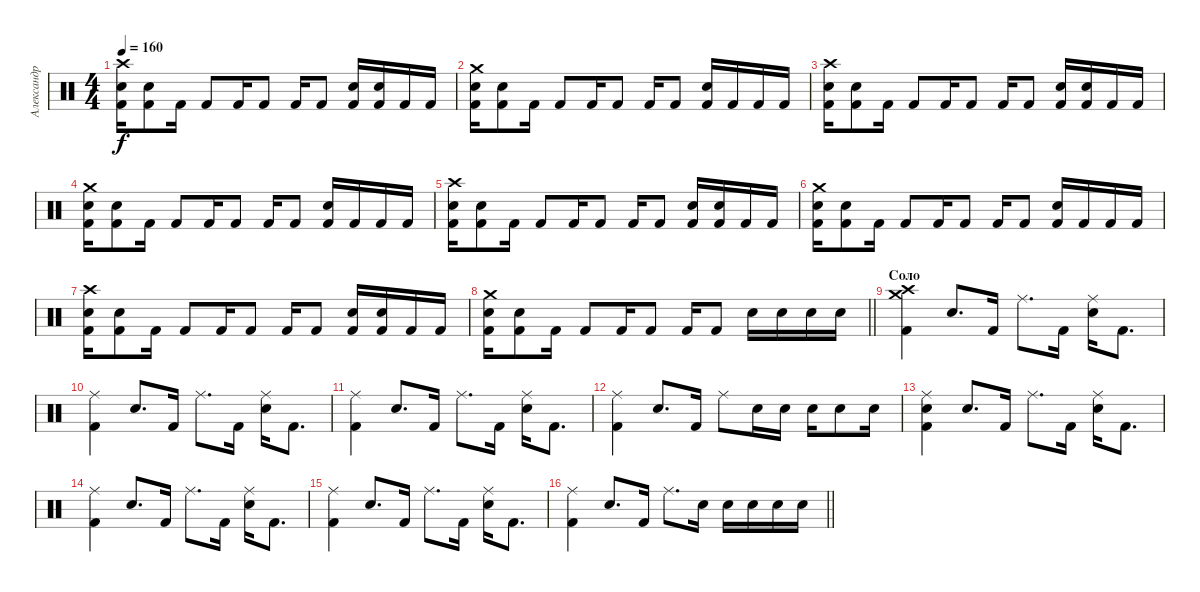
\track ("Александр Карпухин" "Александр ") {instrument percussion}
\staff {score}
\articulation defaults
\ts (4 4)
\tempo 160
\clef neutral
\ks c
("Crash high (hit)" "Electric Snare (hit)" "Kick (hit) 2").16{dy f} ("Electric Snare (hit)" "Kick (hit) 2").8 "Kick (hit) 2".16 "Kick (hit) 2".8 "Kick (hit) 2".16 "Kick (hit) 2".8 "Kick (hit) 2".16 "Kick (hit) 2".8 ("Electric Snare (hit)" "Kick (hit) 2").16 ("Electric Snare (hit)" "Kick (hit) 2").16 "Kick (hit) 2".16 "Kick (hit) 2".16 |
("Crash medium (hit)" "Electric Snare (hit)" "Kick (hit) 2").16 ("Electric Snare (hit)" "Kick (hit) 2").8 "Kick (hit) 2".16 "Kick (hit) 2".8 "Kick (hit) 2".16 "Kick (hit) 2".8 "Kick (hit) 2".16 "Kick (hit) 2".8 ("Electric Snare (hit)" "Kick (hit) 2").16 "Kick (hit) 2".16 "Kick (hit) 2".16 "Kick (hit) 2".16 |
("Crash high (hit)" "Electric Snare (hit)" "Kick (hit) 2").16 ("Electric Snare (hit)" "Kick (hit) 2").8 "Kick (hit) 2".16 "Kick (hit) 2".8 "Kick (hit) 2".16 "Kick (hit) 2".8 "Kick (hit) 2".16 "Kick (hit) 2".8 ("Electric Snare (hit)" "Kick (hit) 2").16 ("Electric Snare (hit)" "Kick (hit) 2").16 "Kick (hit) 2".16 "Kick (hit) 2".16 |
("Crash medium (hit)" "Electric Snare (hit)" "Kick (hit) 2").16 ("Electric Snare (hit)" "Kick (hit) 2").8 "Kick (hit) 2".16 "Kick (hit) 2".8 "Kick (hit) 2".16 "Kick (hit) 2".8 "Kick (hit) 2".16 "Kick (hit) 2".8 ("Electric Snare (hit)" "Kick (hit) 2").16 "Kick (hit) 2".16 "Kick (hit) 2".16 "Kick (hit) 2".16 |
("Crash high (hit)" "Electric Snare (hit)" "Kick (hit) 2").16 ("Electric Snare (hit)" "Kick (hit) 2").8 "Kick (hit) 2".16 "Kick (hit) 2".8 "Kick (hit) 2".16 "Kick (hit) 2".8 "Kick (hit) 2".16 "Kick (hit) 2".8 ("Electric Snare (hit)" "Kick (hit) 2").16 ("Electric Snare (hit)" "Kick (hit) 2").16 "Kick (hit) 2".16 "Kick (hit) 2".16 |
("Crash medium (hit)" "Electric Snare (hit)" "Kick (hit) 2").16 ("Electric Snare (hit)" "Kick (hit) 2").8 "Kick (hit) 2".16 "Kick (hit) 2".8 "Kick (hit) 2".16 "Kick (hit) 2".8 "Kick (hit) 2".16 "Kick (hit) 2".8 ("Electric Snare (hit)" "Kick (hit) 2").16 "Kick (hit) 2".16 "Kick (hit) 2".16 "Kick (hit) 2".16 |
("Crash high (hit)" "Electric Snare (hit)" "Kick (hit) 2").16 ("Electric Snare (hit)" "Kick (hit) 2").8 "Kick (hit) 2".16 "Kick (hit) 2".8 "Kick (hit) 2".16 "Kick (hit) 2".8 "Kick (hit) 2".16 "Kick (hit) 2".8 ("Electric Snare (hit)" "Kick (hit) 2").16 ("Electric Snare (hit)" "Kick (hit) 2").16 "Kick (hit) 2".16 "Kick (hit) 2".16 |
\barLineRight lightlight
("Crash medium (hit)" "Electric Snare (hit)" "Kick (hit) 2").16 ("Electric Snare (hit)" "Kick (hit) 2").8 "Kick (hit) 2".16 "Kick (hit) 2".8 "Kick (hit) 2".16 "Kick (hit) 2".8 "Kick (hit) 2".16 "Kick (hit) 2".8 "Electric Snare (hit)".16 "Electric Snare (hit)".16 "Electric Snare (hit)".16 "Electric Snare (hit)".16 |
\section ("" "Соло")
("Crash high (hit)" "Kick (hit) 2" "Crash medium (hit)").4 "Electric Snare (hit)".8{d} "Kick (hit) 2".16 "Ride (middle)".8{d} "Kick (hit) 2".16 ("Ride (middle)" "Electric Snare (hit)").16 "Kick (hit) 2".8{d} |
("Ride (middle)" "Kick (hit) 2").4 "Electric Snare (hit)".8{d} "Kick (hit) 2".16 "Ride (middle)".8{d} "Kick (hit) 2".16 ("Ride (middle)" "Electric Snare (hit)").16 "Kick (hit) 2".8{d} |
("Ride (middle)" "Kick (hit) 2").4 "Electric Snare (hit)".8{d} "Kick (hit) 2".16 "Ride (middle)".8{d} "Kick (hit) 2".16 ("Ride (middle)" "Electric Snare (hit)").16 "Kick (hit) 2".8{d} |
("Ride (middle)" "Kick (hit) 2").4 "Electric Snare (hit)".8{d} "Kick (hit) 2".16 "Ride (middle)".8 "Electric Snare (hit)".16 "Electric Snare (hit)".16 "Electric Snare (hit)".16 "Electric Snare (hit)".8 "Electric Snare (hit)".16 |
("Ride (middle)" "Kick (hit) 2" "Electric Snare (hit)").4 "Electric Snare (hit)".8{d} "Kick (hit) 2".16 "Ride (middle)".8{d} "Kick (hit) 2".16 ("Ride (middle)" "Electric Snare (hit)").16 "Kick (hit) 2".8{d} |
("Ride (middle)" "Kick (hit) 2").4 "Electric Snare (hit)".8{d} "Kick (hit) 2".16 "Ride (middle)".8{d} "Kick (hit) 2".16 ("Ride (middle)" "Electric Snare (hit)").16 "Kick (hit) 2".8{d} |
("Ride (middle)" "Kick (hit) 2").4 "Electric Snare (hit)".8{d} "Kick (hit) 2".16 "Ride (middle)".8{d} "Kick (hit) 2".16 ("Ride (middle)" "Electric Snare (hit)").16 "Kick (hit) 2".8{d} |
\barLineRight lightlight
("Ride (middle)" "Kick (hit) 2").4 "Electric Snare (hit)".8{d} "Kick (hit) 2".16 "Ride (middle)".8{d} "Electric Snare (hit)".16 "Electric Snare (hit)".16 "Electric Snare (hit)".16 "Electric Snare (hit)".16 "Electric Snare (hit)".16
